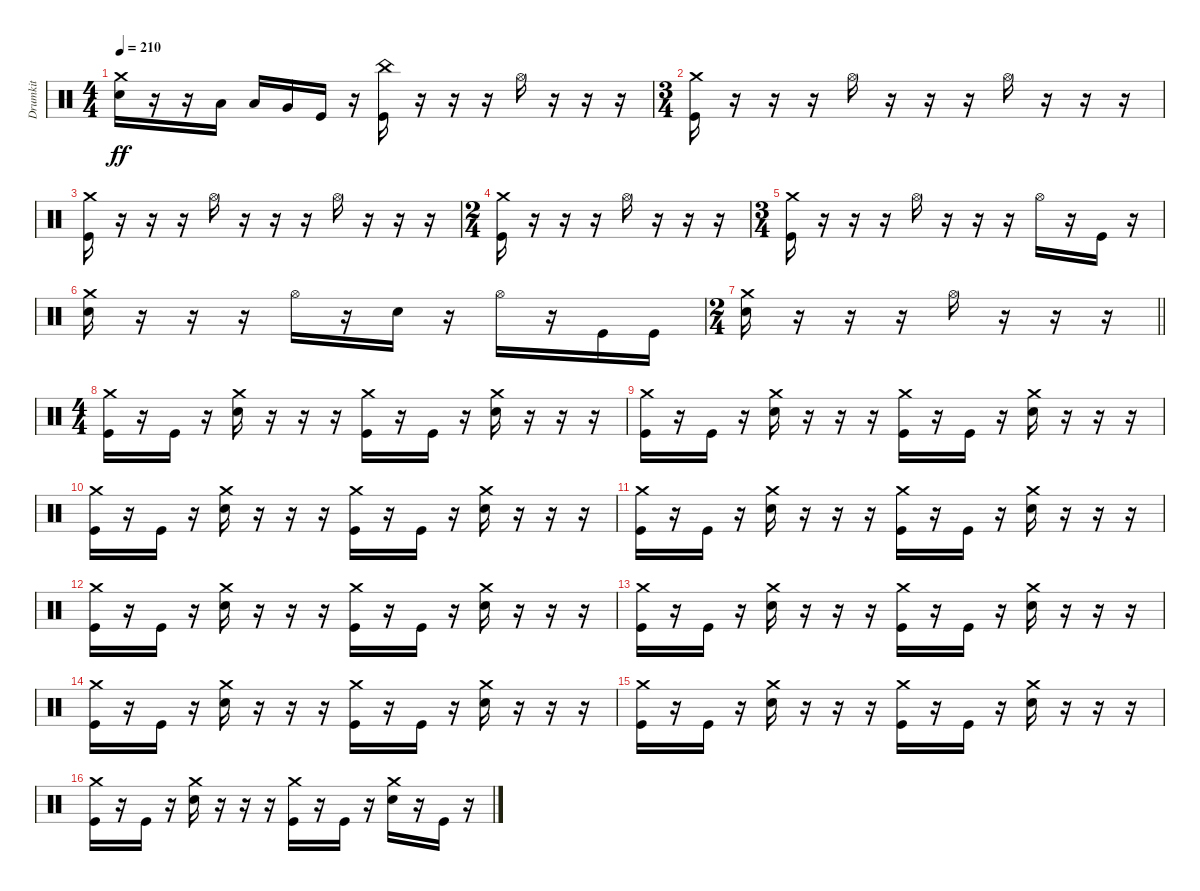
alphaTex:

\track ("Drumkit" "Drumkit") {instrument percussion}
\staff {score}
\articulation defaults
\ts (4 4)
\tempo 210
\clef neutral
\ks c
("Crash medium (hit)" "Snare (hit) 2").16{dy ff} r.16 r.16 "Low Tom (hit)".16 "Low Tom (hit)".16 "Very Low Tom (hit)".16 "Kick (hit)".16 r.16 ("China (hit)" "Kick (hit)").16 r.16 r.16 r.16 "Hi-Hat (open)".16 r.16 r.16 r.16 |
\ts (3 4)
("Crash medium (hit)" "Kick (hit)").16 r.16 r.16 r.16 "Hi-Hat (open)".16 r.16 r.16 r.16 "Hi-Hat (open)".16 r.16 r.16 r.16 |
("Crash medium (hit)" "Kick (hit)").16 r.16 r.16 r.16 "Hi-Hat (open)".16 r.16 r.16 r.16 "Hi-Hat (open)".16 r.16 r.16 r.16 |
\ts (2 4)
("Crash medium (hit)" "Kick (hit)").16 r.16 r.16 r.16 "Hi-Hat (open)".16 r.16 r.16 r.16 |
\ts (3 4)
("Crash medium (hit)" "Kick (hit)").16 r.16 r.16 r.16 "Hi-Hat (open)".16 r.16 r.16 r.16 "Hi-Hat (open)".16 r.16 "Kick (hit)".16 r.16 |
("Crash medium (hit)" "Snare (hit) 2").16 r.16 r.16 r.16 "Hi-Hat (open)".16 r.16 "Snare (hit) 2".16 r.16 "Hi-Hat (open)".16 r.16 "Kick (hit)".16 "Kick (hit)".16 |
\ts (2 4)
\barLineRight lightlight
("Crash medium (hit)" "Snare (hit) 2").16 r.16 r.16 r.16 "Hi-Hat (open)".16 r.16 r.16 r.16 |
\ts (4 4)
("Kick (hit)" "Crash medium (hit)").16 r.16 "Kick (hit)".16 r.16 ("Snare (hit) 2" "Crash medium (hit)").16 r.16 r.16 r.16 ("Kick (hit)" "Crash medium (hit)").16 r.16 "Kick (hit)".16 r.16 ("Snare (hit) 2" "Crash medium (hit)").16 r.16 r.16 r.16 |
("Kick (hit)" "Crash medium (hit)").16 r.16 "Kick (hit)".16 r.16 ("Snare (hit) 2" "Crash medium (hit)").16 r.16 r.16 r.16 ("Kick (hit)" "Crash medium (hit)").16 r.16 "Kick (hit)".16 r.16 ("Snare (hit) 2" "Crash medium (hit)").16 r.16 r.16 r.16 |
("Kick (hit)" "Crash medium (hit)").16 r.16 "Kick (hit)".16 r.16 ("Snare (hit) 2" "Crash medium (hit)").16 r.16 r.16 r.16 ("Kick (hit)" "Crash medium (hit)").16 r.16 "Kick (hit)".16 r.16 ("Snare (hit) 2" "Crash medium (hit)").16 r.16 r.16 r.16 |
("Kick (hit)" "Crash medium (hit)").16 r.16 "Kick (hit)".16 r.16 ("Snare (hit) 2" "Crash medium (hit)").16 r.16 r.16 r.16 ("Kick (hit)" "Crash medium (hit)").16 r.16 "Kick (hit)".16 r.16 ("Snare (hit) 2" "Crash medium (hit)").16 r.16 r.16 r.16 |
("Kick (hit)" "Crash medium (hit)").16 r.16 "Kick (hit)".16 r.16 ("Snare (hit) 2" "Crash medium (hit)").16 r.16 r.16 r.16 ("Kick (hit)" "Crash medium (hit)").16 r.16 "Kick (hit)".16 r.16 ("Snare (hit) 2" "Crash medium (hit)").16 r.16 r.16 r.16 |
("Kick (hit)" "Crash medium (hit)").16 r.16 "Kick (hit)".16 r.16 ("Snare (hit) 2" "Crash medium (hit)").16 r.16 r.16 r.16 ("Kick (hit)" "Crash medium (hit)").16 r.16 "Kick (hit)".16 r.16 ("Snare (hit) 2" "Crash medium (hit)").16 r.16 r.16 r.16 |
("Kick (hit)" "Crash medium (hit)").16 r.16 "Kick (hit)".16 r.16 ("Snare (hit) 2" "Crash medium (hit)").16 r.16 r.16 r.16 ("Kick (hit)" "Crash medium (hit)").16 r.16 "Kick (hit)".16 r.16 ("Snare (hit) 2" "Crash medium (hit)").16 r.16 r.16 r.16 |
("Kick (hit)" "Crash medium (hit)").16 r.16 "Kick (hit)".16 r.16 ("Snare (hit) 2" "Crash medium (hit)").16 r.16 r.16 r.16 ("Kick (hit)" "Crash medium (hit)").16 r.16 "Kick (hit)".16 r.16 ("Snare (hit) 2" "Crash medium (hit)").16 r.16 r.16 r.16 |
("Kick (hit)" "Crash medium (hit)").16 r.16 "Kick (hit)".16 r.16 ("Snare (hit) 2" "Crash medium (hit)").16 r.16 r.16 r.16 ("Kick (hit)" "Crash medium (hit)").16 r.16 "Kick (hit)".16 r.16 ("Snare (hit) 2" "Crash medium (hit)").16 r.16 "Kick (hit)".16 r.16
